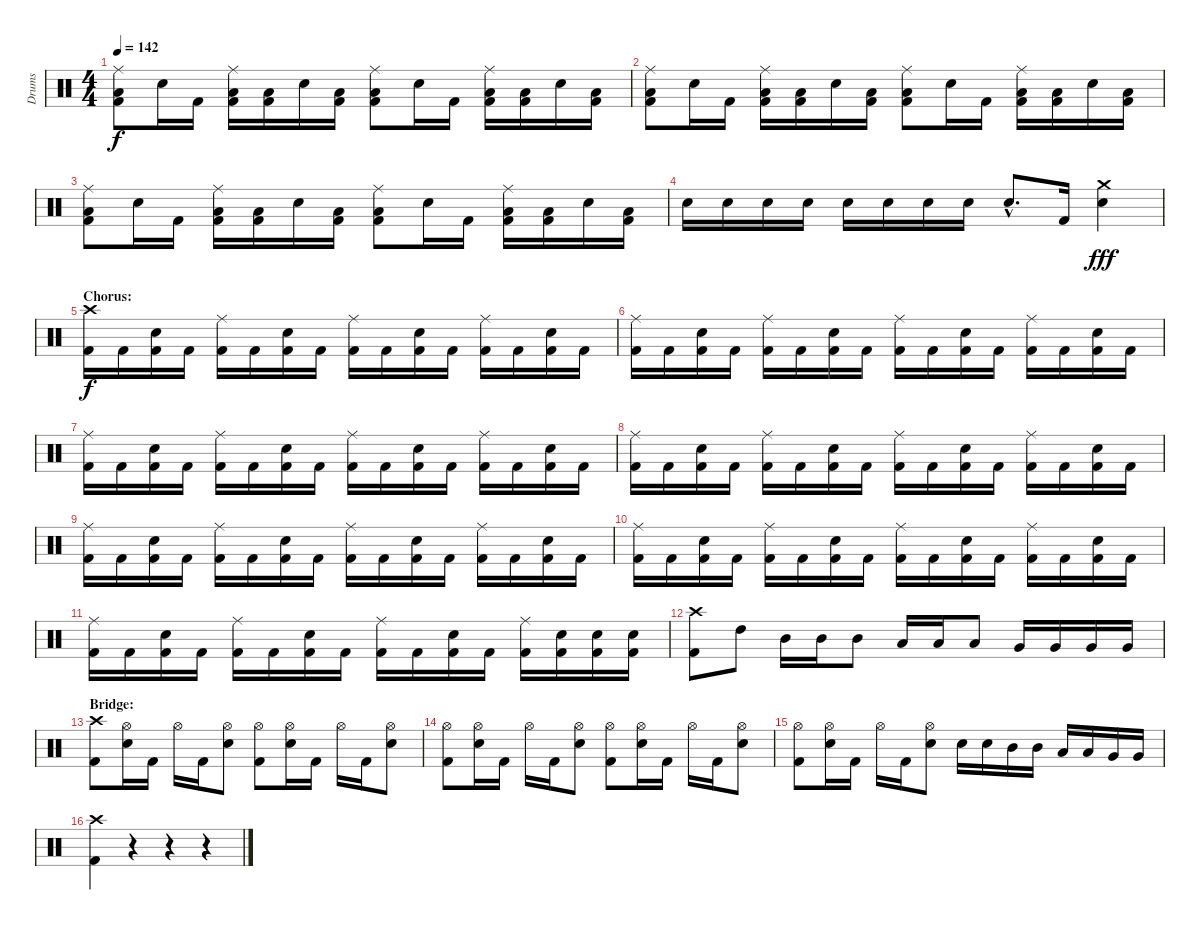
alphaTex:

\track ("Drums" "Drums") {instrument percussion}
\staff {score}
\articulation defaults
\ts (4 4)
\tempo 142
\clef neutral
\ks c
("Ride (middle)" "Low Floor Tom (hit)" "Kick (hit) 2").8{dy f} "Electric Snare (hit)".16 "Kick (hit) 2".16 ("Ride (middle)" "Low Floor Tom (hit)" "Kick (hit) 2").16 ("Low Floor Tom (hit)" "Kick (hit) 2").16 "Electric Snare (hit)".16 ("Low Floor Tom (hit)" "Kick (hit) 2").16 ("Ride (middle)" "Low Floor Tom (hit)" "Kick (hit) 2").8 "Electric Snare (hit)".16 "Kick (hit) 2".16 ("Ride (middle)" "Low Floor Tom (hit)" "Kick (hit) 2").16 ("Low Floor Tom (hit)" "Kick (hit) 2").16 "Electric Snare (hit)".16 ("Low Floor Tom (hit)" "Kick (hit) 2").16 |
("Ride (middle)" "Low Floor Tom (hit)" "Kick (hit) 2").8 "Electric Snare (hit)".16 "Kick (hit) 2".16 ("Ride (middle)" "Low Floor Tom (hit)" "Kick (hit) 2").16 ("Low Floor Tom (hit)" "Kick (hit) 2").16 "Electric Snare (hit)".16 ("Low Floor Tom (hit)" "Kick (hit) 2").16 ("Ride (middle)" "Low Floor Tom (hit)" "Kick (hit) 2").8 "Electric Snare (hit)".16 "Kick (hit) 2".16 ("Ride (middle)" "Low Floor Tom (hit)" "Kick (hit) 2").16 ("Low Floor Tom (hit)" "Kick (hit) 2").16 "Electric Snare (hit)".16 ("Low Floor Tom (hit)" "Kick (hit) 2").16 |
("Ride (middle)" "Low Floor Tom (hit)" "Kick (hit) 2").8 "Electric Snare (hit)".16 "Kick (hit) 2".16 ("Ride (middle)" "Low Floor Tom (hit)" "Kick (hit) 2").16 ("Low Floor Tom (hit)" "Kick (hit) 2").16 "Electric Snare (hit)".16 ("Low Floor Tom (hit)" "Kick (hit) 2").16 ("Ride (middle)" "Low Floor Tom (hit)" "Kick (hit) 2").8 "Electric Snare (hit)".16 "Kick (hit) 2".16 ("Ride (middle)" "Low Floor Tom (hit)" "Kick (hit) 2").16 ("Low Floor Tom (hit)" "Kick (hit) 2").16 "Electric Snare (hit)".16 ("Low Floor Tom (hit)" "Kick (hit) 2").16 |
"Electric Snare (hit)".16 "Electric Snare (hit)".16 "Electric Snare (hit)".16 "Electric Snare (hit)".16 "Electric Snare (hit)".16 "Electric Snare (hit)".16 "Electric Snare (hit)".16 "Electric Snare (hit)".16 "Electric Snare (hit)"{hac}.8{d} "Kick (hit) 2".16 ("Crash medium (hit)" "Electric Snare (hit)").4{dy fff} |
\section ("" "Chorus:")
("Crash high (hit)" "Kick (hit) 2").16{dy f} "Kick (hit) 2".16 ("Electric Snare (hit)" "Kick (hit) 2").16 "Kick (hit) 2".16 ("Ride (middle)" "Kick (hit) 2").16 "Kick (hit) 2".16 ("Electric Snare (hit)" "Kick (hit) 2").16 "Kick (hit) 2".16 ("Ride (middle)" "Kick (hit) 2").16 "Kick (hit) 2".16 ("Electric Snare (hit)" "Kick (hit) 2").16 "Kick (hit) 2".16 ("Ride (middle)" "Kick (hit) 2").16 "Kick (hit) 2".16 ("Electric Snare (hit)" "Kick (hit) 2").16 "Kick (hit) 2".16 |
("Ride (middle)" "Kick (hit) 2").16 "Kick (hit) 2".16 ("Electric Snare (hit)" "Kick (hit) 2").16 "Kick (hit) 2".16 ("Ride (middle)" "Kick (hit) 2").16 "Kick (hit) 2".16 ("Electric Snare (hit)" "Kick (hit) 2").16 "Kick (hit) 2".16 ("Ride (middle)" "Kick (hit) 2").16 "Kick (hit) 2".16 ("Electric Snare (hit)" "Kick (hit) 2").16 "Kick (hit) 2".16 ("Ride (middle)" "Kick (hit) 2").16 "Kick (hit) 2".16 ("Electric Snare (hit)" "Kick (hit) 2").16 "Kick (hit) 2".16 |
("Ride (middle)" "Kick (hit) 2").16 "Kick (hit) 2".16 ("Electric Snare (hit)" "Kick (hit) 2").16 "Kick (hit) 2".16 ("Ride (middle)" "Kick (hit) 2").16 "Kick (hit) 2".16 ("Electric Snare (hit)" "Kick (hit) 2").16 "Kick (hit) 2".16 ("Ride (middle)" "Kick (hit) 2").16 "Kick (hit) 2".16 ("Electric Snare (hit)" "Kick (hit) 2").16 "Kick (hit) 2".16 ("Ride (middle)" "Kick (hit) 2").16 "Kick (hit) 2".16 ("Electric Snare (hit)" "Kick (hit) 2").16 "Kick (hit) 2".16 |
("Ride (middle)" "Kick (hit) 2").16 "Kick (hit) 2".16 ("Electric Snare (hit)" "Kick (hit) 2").16 "Kick (hit) 2".16 ("Ride (middle)" "Kick (hit) 2").16 "Kick (hit) 2".16 ("Electric Snare (hit)" "Kick (hit) 2").16 "Kick (hit) 2".16 ("Ride (middle)" "Kick (hit) 2").16 "Kick (hit) 2".16 ("Electric Snare (hit)" "Kick (hit) 2").16 "Kick (hit) 2".16 ("Ride (middle)" "Kick (hit) 2").16 "Kick (hit) 2".16 ("Electric Snare (hit)" "Kick (hit) 2").16 "Kick (hit) 2".16 |
("Ride (middle)" "Kick (hit) 2").16 "Kick (hit) 2".16 ("Electric Snare (hit)" "Kick (hit) 2").16 "Kick (hit) 2".16 ("Ride (middle)" "Kick (hit) 2").16 "Kick (hit) 2".16 ("Electric Snare (hit)" "Kick (hit) 2").16 "Kick (hit) 2".16 ("Ride (middle)" "Kick (hit) 2").16 "Kick (hit) 2".16 ("Electric Snare (hit)" "Kick (hit) 2").16 "Kick (hit) 2".16 ("Ride (middle)" "Kick (hit) 2").16 "Kick (hit) 2".16 ("Electric Snare (hit)" "Kick (hit) 2").16 "Kick (hit) 2".16 |
("Ride (middle)" "Kick (hit) 2").16 "Kick (hit) 2".16 ("Electric Snare (hit)" "Kick (hit) 2").16 "Kick (hit) 2".16 ("Ride (middle)" "Kick (hit) 2").16 "Kick (hit) 2".16 ("Electric Snare (hit)" "Kick (hit) 2").16 "Kick (hit) 2".16 ("Ride (middle)" "Kick (hit) 2").16 "Kick (hit) 2".16 ("Electric Snare (hit)" "Kick (hit) 2").16 "Kick (hit) 2".16 ("Ride (middle)" "Kick (hit) 2").16 "Kick (hit) 2".16 ("Electric Snare (hit)" "Kick (hit) 2").16 "Kick (hit) 2".16 |
("Ride (middle)" "Kick (hit) 2").16 "Kick (hit) 2".16 ("Electric Snare (hit)" "Kick (hit) 2").16 "Kick (hit) 2".16 ("Ride (middle)" "Kick (hit) 2").16 "Kick (hit) 2".16 ("Electric Snare (hit)" "Kick (hit) 2").16 "Kick (hit) 2".16 ("Ride (middle)" "Kick (hit) 2").16 "Kick (hit) 2".16 ("Electric Snare (hit)" "Kick (hit) 2").16 "Kick (hit) 2".16 ("Ride (middle)" "Kick (hit) 2").16 ("Electric Snare (hit)" "Kick (hit) 2").16 ("Electric Snare (hit)" "Kick (hit) 2").16 ("Electric Snare (hit)" "Kick (hit) 2").16 |
("Crash high (hit)" "Kick (hit) 2").8 "High Tom (hit)".8 "Mid Tom (hit)".16 "Mid Tom (hit)".16 "Mid Tom (hit)".8 "Low Tom (hit)".16 "Low Tom (hit)".16 "Low Tom (hit)".8 "Very Low Tom (hit)".16 "Very Low Tom (hit)".16 "Very Low Tom (hit)".16 "Very Low Tom (hit)".16 |
\section ("" "Bridge:")
("Crash high (hit)" "Kick (hit) 2").8 ("Hi-Hat (open)" "Electric Snare (hit)").16 "Kick (hit) 2".16 "Hi-Hat (open)".16 "Kick (hit) 2".16 ("Hi-Hat (open)" "Electric Snare (hit)").8 ("Hi-Hat (open)" "Kick (hit) 2").8 ("Hi-Hat (open)" "Electric Snare (hit)").16 "Kick (hit) 2".16 "Hi-Hat (open)".16 "Kick (hit) 2".16 ("Hi-Hat (open)" "Electric Snare (hit)").8 |
("Hi-Hat (open)" "Kick (hit) 2").8 ("Hi-Hat (open)" "Electric Snare (hit)").16 "Kick (hit) 2".16 "Hi-Hat (open)".16 "Kick (hit) 2".16 ("Hi-Hat (open)" "Electric Snare (hit)").8 ("Hi-Hat (open)" "Kick (hit) 2").8 ("Hi-Hat (open)" "Electric Snare (hit)").16 "Kick (hit) 2".16 "Hi-Hat (open)".16 "Kick (hit) 2".16 ("Hi-Hat (open)" "Electric Snare (hit)").8 |
("Hi-Hat (open)" "Kick (hit) 2").8 ("Hi-Hat (open)" "Electric Snare (hit)").16 "Kick (hit) 2".16 "Hi-Hat (open)".16 "Kick (hit) 2".16 ("Hi-Hat (open)" "Electric Snare (hit)").8 "Electric Snare (hit)".16 "Electric Snare (hit)".16 "Mid Tom (hit)".16 "Mid Tom (hit)".16 "Low Tom (hit)".16 "Low Tom (hit)".16 "Very Low Tom (hit)".16 "Very Low Tom (hit)".16 |
("Crash high (hit)" "Kick (hit) 2").4 r.4 r.4 r.4
